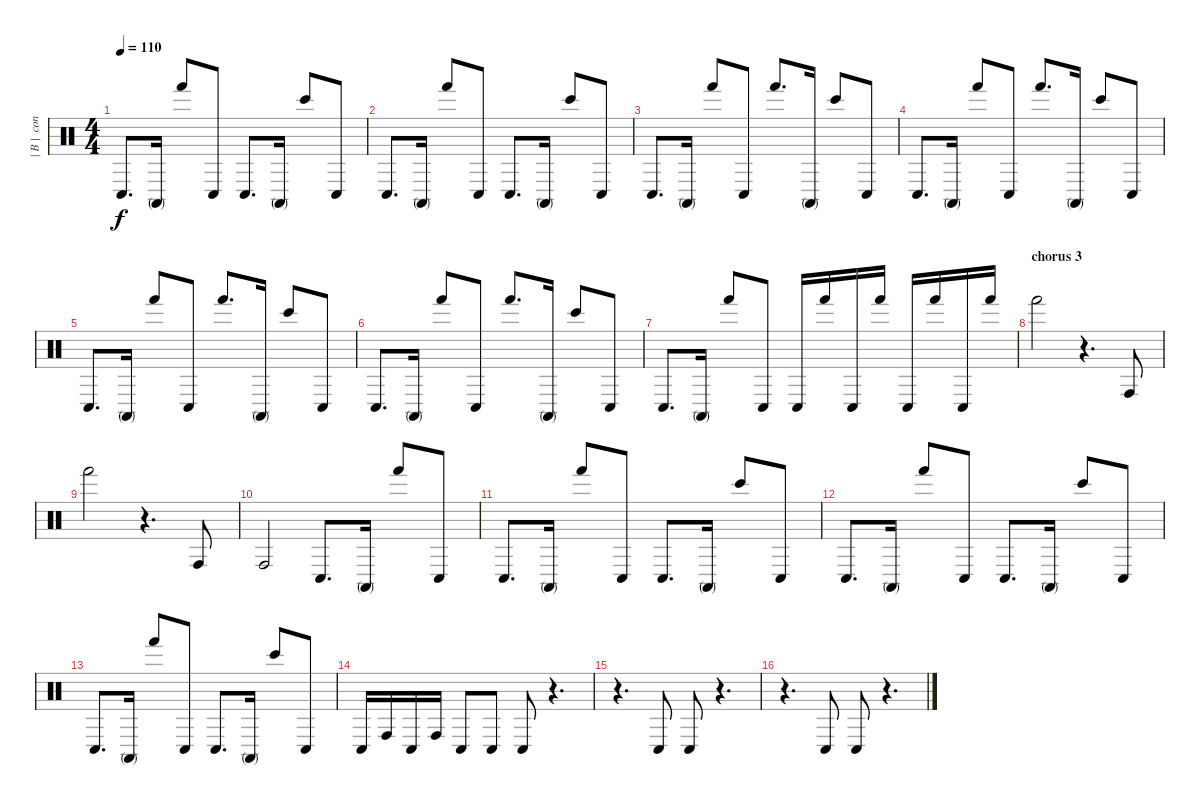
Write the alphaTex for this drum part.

\track ("| B |  conga" "| B |  con") {instrument percussion}
\staff {score}
\articulation defaults
\ts (4 4)
\tempo 110
\clef neutral
\ks c "Conga low (hit)".8{d dy f} "Conga high (mute)".16 "Hand (hit)".8 "Conga low (hit)".8 "Conga low (hit)".8{d} "Conga high (mute)".16 "Bongo High (hit)".8 "Conga low (hit)".8
|
"Conga low (hit)".8{d} "Conga high (mute)".16 "Hand (hit)".8 "Conga low (hit)".8 "Conga low (hit)".8{d} "Conga high (mute)".16 "Bongo High (hit)".8 "Conga low (hit)".8 |
"Conga low (hit)".8{d} "Conga high (mute)".16 "Hand (hit)".8 "Conga low (hit)".8 "Hand (hit)".8{d} "Conga high (mute)".16 "Bongo High (hit)".8 "Conga low (hit)".8 |
"Conga low (hit)".8{d} "Conga high (mute)".16 "Hand (hit)".8 "Conga low (hit)".8 "Hand (hit)".8{d} "Conga high (mute)".16 "Bongo High (hit)".8 "Conga low (hit)".8 |
"Conga low (hit)".8{d} "Conga high (mute)".16 "Hand (hit)".8 "Conga low (hit)".8 "Hand (hit)".8{d} "Conga high (mute)".16 "Bongo High (hit)".8 "Conga low (hit)".8 |
"Conga low (hit)".8{d} "Conga high (mute)".16 "Hand (hit)".8 "Conga low (hit)".8 "Hand (hit)".8{d} "Conga high (mute)".16 "Bongo High (hit)".8 "Conga low (hit)".8 |
"Conga low (hit)".8{d} "Conga high (mute)".16 "Hand (hit)".8 "Conga low (hit)".8 "Conga low (hit)".16 "Hand (hit)".16 "Conga low (hit)".16 "Hand (hit)".16 "Conga low (hit)".16 "Hand (hit)".16 "Conga low (hit)".16 "Hand (hit)".16 |
\section ("" "chorus 3")
"Hand (hit)".2 r.4{d} "Conga high (hit)".8 |
"Hand (hit)".2 r.4{d} "Conga high (hit)".8 |
"Conga high (hit)".2 "Conga low (hit)".8{d} "Conga high (mute)".16 "Hand (hit)".8 "Conga low (hit)".8 |
"Conga low (hit)".8{d} "Conga high (mute)".16 "Hand (hit)".8 "Conga low (hit)".8 "Conga low (hit)".8{d} "Conga high (mute)".16 "Bongo High (hit)".8 "Conga low (hit)".8 |
"Conga low (hit)".8{d} "Conga high (mute)".16 "Hand (hit)".8 "Conga low (hit)".8 "Conga low (hit)".8{d} "Conga high (mute)".16 "Bongo High (hit)".8 "Conga low (hit)".8 |
"Conga low (hit)".8{d} "Conga high (mute)".16 "Hand (hit)".8 "Conga low (hit)".8 "Conga low (hit)".8{d} "Conga high (mute)".16 "Bongo High (hit)".8 "Conga low (hit)".8 |
"Conga low (hit)".16 "Conga high (hit)".16 "Conga low (hit)".16 "Conga high (hit)".16 "Conga low (hit)".8 "Conga low (hit)".8 "Conga low (hit)".8 r.4{d} |
r.4{d} "Conga low (hit)".8 "Conga low (hit)".8 r.4{d} |
r.4{d} "Conga low (hit)".8 "Conga low (hit)".8 r.4{d}
